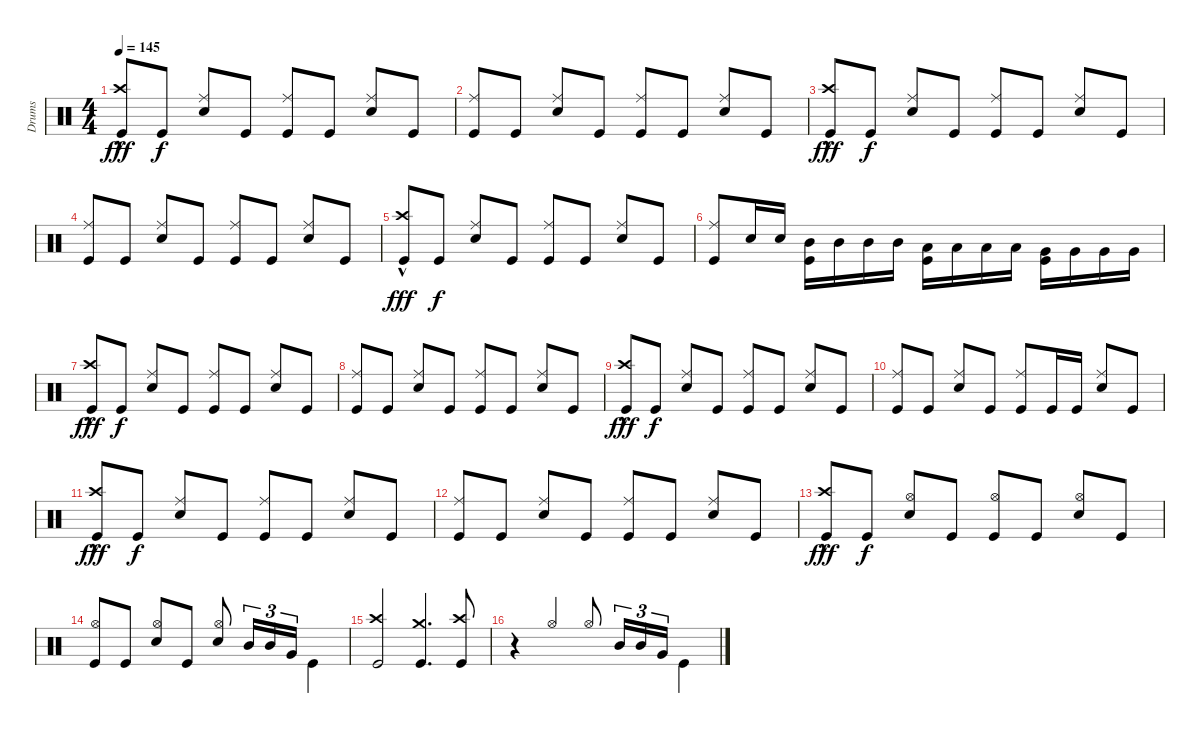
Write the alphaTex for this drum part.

\track ("Drums" "Drums") {instrument percussion}
\staff {score}
\articulation defaults
\ts (4 4)
\tempo 145
\clef neutral
\ks c
("Crash high (hit)"{hac} "Kick (hit)").8{dy fff beam Up} "Kick (hit)".8{dy f beam Up} ("Ride (middle)" "Snare (hit) 2").8{beam Up} "Kick (hit)".8{beam Up} ("Ride (middle)" "Kick (hit)").8{beam Up} "Kick (hit)".8{beam Up} ("Ride (middle)" "Snare (hit) 2").8{beam Up} "Kick (hit)".8{beam Up} |
("Ride (middle)" "Kick (hit)").8{beam Up} "Kick (hit)".8{beam Up} ("Ride (middle)" "Snare (hit) 2").8{beam Up} "Kick (hit)".8{beam Up} ("Ride (middle)" "Kick (hit)").8{beam Up} "Kick (hit)".8{beam Up} ("Ride (middle)" "Snare (hit) 2").8{beam Up} "Kick (hit)".8{beam Up} |
("Crash high (hit)"{hac} "Kick (hit)").8{dy fff beam Up} "Kick (hit)".8{dy f beam Up} ("Ride (middle)" "Snare (hit) 2").8{beam Up} "Kick (hit)".8{beam Up} ("Ride (middle)" "Kick (hit)").8{beam Up} "Kick (hit)".8{beam Up} ("Ride (middle)" "Snare (hit) 2").8{beam Up} "Kick (hit)".8{beam Up} |
("Ride (middle)" "Kick (hit)").8{beam Up} "Kick (hit)".8{beam Up} ("Ride (middle)" "Snare (hit) 2").8{beam Up} "Kick (hit)".8{beam Up} ("Ride (middle)" "Kick (hit)").8{beam Up} "Kick (hit)".8{beam Up} ("Ride (middle)" "Snare (hit) 2").8{beam Up} "Kick (hit)".8{beam Up} |
("Crash high (hit)"{hac} "Kick (hit)").8{dy fff beam Up} "Kick (hit)".8{dy f beam Up} ("Ride (middle)" "Snare (hit) 2").8{beam Up} "Kick (hit)".8{beam Up} ("Ride (middle)" "Kick (hit)").8{beam Up} "Kick (hit)".8{beam Up} ("Ride (middle)" "Snare (hit) 2").8{beam Up} "Kick (hit)".8{beam Up} |
("Ride (middle)" "Kick (hit)").8{beam Up} "Snare (hit) 2".16{beam Up} "Snare (hit) 2".16{beam Up} ("Mid Tom (hit)" "Kick (hit)").16{beam Down} "Mid Tom (hit)".16{beam Down} "Mid Tom (hit)".16{beam Down} "Mid Tom (hit)".16{beam Down} ("Low Tom (hit)" "Kick (hit)").16{beam Down} "Low Tom (hit)".16{beam Down} "Low Tom (hit)".16{beam Down} "Low Tom (hit)".16{beam Down} ("Very Low Tom (hit)" "Kick (hit)").16{beam Down} "Very Low Tom (hit)".16{beam Down} "Very Low Tom (hit)".16{beam Down} "Very Low Tom (hit)".16{beam Down} |
("Crash high (hit)"{hac} "Kick (hit)").8{dy fff beam Up} "Kick (hit)".8{dy f beam Up} ("Ride (middle)" "Snare (hit) 2").8{beam Up} "Kick (hit)".8{beam Up} ("Ride (middle)" "Kick (hit)").8{beam Up} "Kick (hit)".8{beam Up} ("Ride (middle)" "Snare (hit) 2").8{beam Up} "Kick (hit)".8{beam Up} |
("Ride (middle)" "Kick (hit)").8{beam Up} "Kick (hit)".8{beam Up} ("Ride (middle)" "Snare (hit) 2").8{beam Up} "Kick (hit)".8{beam Up} ("Ride (middle)" "Kick (hit)").8{beam Up} "Kick (hit)".8{beam Up} ("Ride (middle)" "Snare (hit) 2").8{beam Up} "Kick (hit)".8{beam Up} |
("Crash high (hit)"{hac} "Kick (hit)").8{dy fff beam Up} "Kick (hit)".8{dy f beam Up} ("Ride (middle)" "Snare (hit) 2").8{beam Up} "Kick (hit)".8{beam Up} ("Ride (middle)" "Kick (hit)").8{beam Up} "Kick (hit)".8{beam Up} ("Ride (middle)" "Snare (hit) 2").8{beam Up} "Kick (hit)".8{beam Up} |
("Ride (middle)" "Kick (hit)").8{beam Up} "Kick (hit)".8{beam Up} ("Ride (middle)" "Snare (hit) 2").8{beam Up} "Kick (hit)".8{beam Up} ("Ride (middle)" "Kick (hit)").8{beam Up} "Kick (hit)".16{beam Up} "Kick (hit)".16{beam Up} ("Ride (middle)" "Snare (hit) 2").8{beam Up} "Kick (hit)".8{beam Up} |
("Crash high (hit)"{hac} "Kick (hit)").8{dy fff beam Up} "Kick (hit)".8{dy f beam Up} ("Ride (middle)" "Snare (hit) 2").8{beam Up} "Kick (hit)".8{beam Up} ("Ride (middle)" "Kick (hit)").8{beam Up} "Kick (hit)".8{beam Up} ("Ride (middle)" "Snare (hit) 2").8{beam Up} "Kick (hit)".8{beam Up} |
("Ride (middle)" "Kick (hit)").8{beam Up} "Kick (hit)".8{beam Up} ("Ride (middle)" "Snare (hit) 2").8{beam Up} "Kick (hit)".8{beam Up} ("Ride (middle)" "Kick (hit)").8{beam Up} "Kick (hit)".8{beam Up} ("Ride (middle)" "Snare (hit) 2").8{beam Up} "Kick (hit)".8{beam Up} |
("Crash high (hit)"{hac} "Kick (hit)").8{dy fff beam Up} "Kick (hit)".8{dy f beam Up} ("Hi-Hat (open)" "Snare (hit) 2").8{beam Up} "Kick (hit)".8{beam Up} ("Hi-Hat (open)" "Kick (hit)").8{beam Up} "Kick (hit)".8{beam Up} ("Hi-Hat (open)" "Snare (hit) 2").8{beam Up} "Kick (hit)".8{beam Up} |
("Hi-Hat (open)" "Kick (hit)").8{beam Up} "Kick (hit)".8{beam Up} ("Hi-Hat (open)" "Snare (hit) 2").8{beam Up} "Kick (hit)".8{beam Up} ("Hi-Hat (open)" "Snare (hit) 2").8{beam Up} "Mid Tom (hit)".16{tu (3 2) beam Up} "Mid Tom (hit)".16{tu (3 2) beam Up} "Very Low Tom (hit)".16{tu (3 2) beam Up} "Kick (hit)".4{beam Down} |
("Crash high (hit)" "Kick (hit)").2{beam Up} ("Crash medium (hit)" "Kick (hit)").4{d beam Up} ("Crash high (hit)" "Kick (hit)").8{beam Up} |
r.4 "Hi-Hat (open)".4{beam Up} "Hi-Hat (open)".8{beam Up} "Mid Tom (hit)".16{tu (3 2) beam Up} "Mid Tom (hit)".16{tu (3 2) beam Up} "Very Low Tom (hit)".16{tu (3 2) beam Up} "Kick (hit)".4{beam Down}
